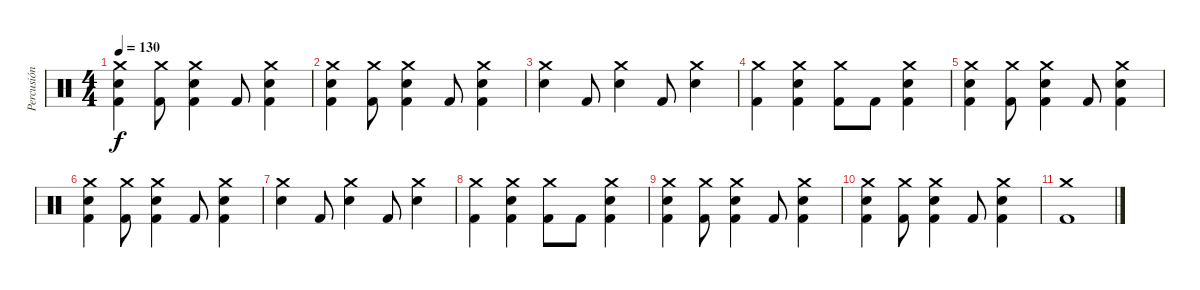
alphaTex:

\track ("Percusión" "Percusión") {instrument percussion}
\staff {score}
\articulation defaults
\ts (4 4)
\tempo 130
\clef neutral
\ks c
("Crash medium (hit)" "Kick (hit) 2" "Electric Snare (hit)").4{dy f} ("Crash medium (hit)" "Kick (hit) 2").8 ("Crash medium (hit)" "Kick (hit) 2" "Electric Snare (hit)").4 "Kick (hit) 2".8 ("Crash medium (hit)" "Kick (hit) 2" "Electric Snare (hit)").4 |
("Crash medium (hit)" "Kick (hit) 2" "Electric Snare (hit)").4 ("Crash medium (hit)" "Kick (hit) 2").8 ("Crash medium (hit)" "Kick (hit) 2" "Electric Snare (hit)").4 "Kick (hit) 2".8 ("Crash medium (hit)" "Kick (hit) 2" "Electric Snare (hit)").4 |
("Crash medium (hit)" "Electric Snare (hit)").4 "Kick (hit) 2".8 ("Crash medium (hit)" "Electric Snare (hit)").4 "Kick (hit) 2".8 ("Crash medium (hit)" "Electric Snare (hit)").4 |
("Crash medium (hit)" "Kick (hit) 2").4 ("Crash medium (hit)" "Kick (hit) 2" "Electric Snare (hit)").4 ("Crash medium (hit)" "Kick (hit) 2").8 "Kick (hit) 2".8 ("Crash medium (hit)" "Kick (hit) 2" "Electric Snare (hit)").4 |
("Crash medium (hit)" "Kick (hit) 2" "Electric Snare (hit)").4 ("Crash medium (hit)" "Kick (hit) 2").8 ("Crash medium (hit)" "Kick (hit) 2" "Electric Snare (hit)").4 "Kick (hit) 2".8 ("Crash medium (hit)" "Kick (hit) 2" "Electric Snare (hit)").4 |
("Crash medium (hit)" "Kick (hit) 2" "Electric Snare (hit)").4 ("Crash medium (hit)" "Kick (hit) 2").8 ("Crash medium (hit)" "Kick (hit) 2" "Electric Snare (hit)").4 "Kick (hit) 2".8 ("Crash medium (hit)" "Kick (hit) 2" "Electric Snare (hit)").4 |
("Crash medium (hit)" "Electric Snare (hit)").4 "Kick (hit) 2".8 ("Crash medium (hit)" "Electric Snare (hit)").4 "Kick (hit) 2".8 ("Crash medium (hit)" "Electric Snare (hit)").4 |
("Crash medium (hit)" "Kick (hit) 2").4 ("Crash medium (hit)" "Kick (hit) 2" "Electric Snare (hit)").4 ("Crash medium (hit)" "Kick (hit) 2").8 "Kick (hit) 2".8 ("Crash medium (hit)" "Kick (hit) 2" "Electric Snare (hit)").4 |
("Crash medium (hit)" "Kick (hit) 2" "Electric Snare (hit)").4 ("Crash medium (hit)" "Kick (hit) 2").8 ("Crash medium (hit)" "Kick (hit) 2" "Electric Snare (hit)").4 "Kick (hit) 2".8 ("Crash medium (hit)" "Kick (hit) 2" "Electric Snare (hit)").4 |
("Crash medium (hit)" "Kick (hit) 2" "Electric Snare (hit)").4 ("Crash medium (hit)" "Kick (hit) 2").8 ("Crash medium (hit)" "Kick (hit) 2" "Electric Snare (hit)").4 "Kick (hit) 2".8 ("Crash medium (hit)" "Kick (hit) 2" "Electric Snare (hit)").4 |
("Crash medium (hit)" "Kick (hit) 2").1
